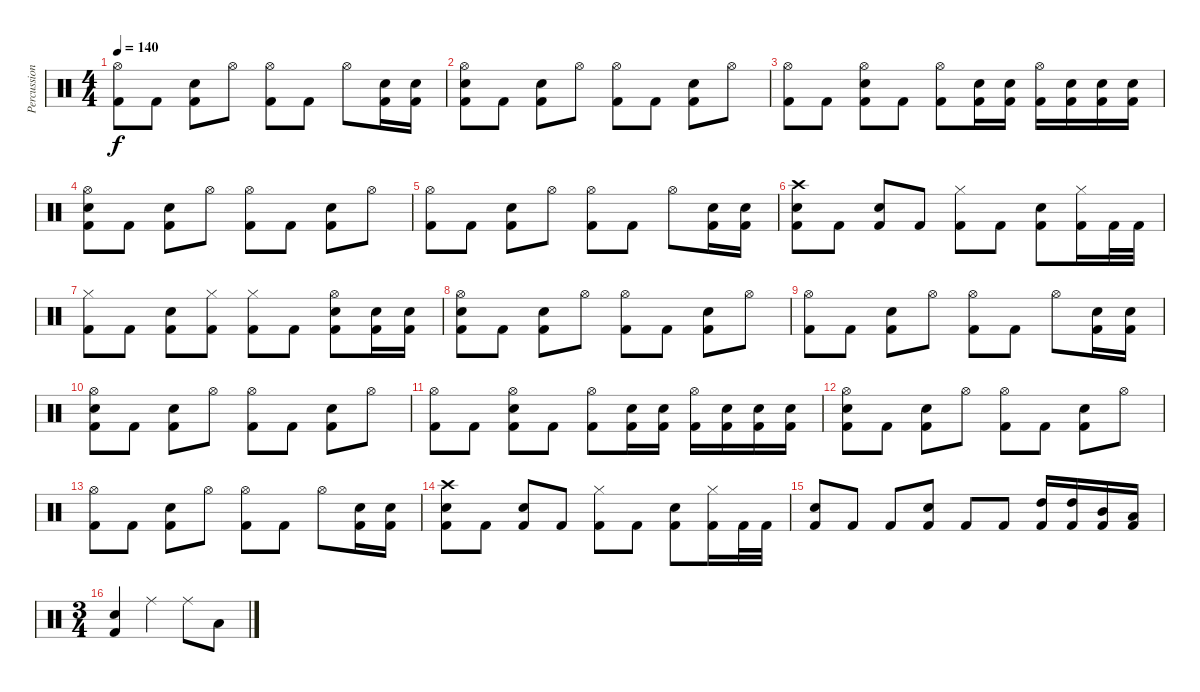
\track ("Percussions" "Percussion") {instrument percussion}
\staff {score}
\articulation defaults
\ts (4 4)
\tempo 140
\clef neutral
\ks c
("Hi-Hat (open)" "Kick (hit) 2").8{dy f} "Kick (hit) 2".8 ("Snare (hit) 2" "Kick (hit) 2").8 "Hi-Hat (open)".8 ("Hi-Hat (open)" "Kick (hit) 2").8 "Kick (hit) 2".8 "Hi-Hat (open)".8 ("Snare (hit) 2" "Kick (hit) 2").16 ("Snare (hit) 2" "Kick (hit) 2").16 |
("Hi-Hat (open)" "Snare (hit) 2" "Kick (hit) 2").8 "Kick (hit) 2".8 ("Snare (hit) 2" "Kick (hit) 2").8 "Hi-Hat (open)".8 ("Hi-Hat (open)" "Kick (hit) 2").8 "Kick (hit) 2".8 ("Snare (hit) 2" "Kick (hit) 2").8 "Hi-Hat (open)".8 |
("Hi-Hat (open)" "Kick (hit) 2").8 "Kick (hit) 2".8 ("Hi-Hat (open)" "Snare (hit) 2" "Kick (hit) 2").8 "Kick (hit) 2".8 ("Hi-Hat (open)" "Kick (hit) 2").8 ("Snare (hit) 2" "Kick (hit) 2").16 ("Snare (hit) 2" "Kick (hit) 2").16 ("Hi-Hat (open)" "Kick (hit) 2").16 ("Snare (hit) 2" "Kick (hit) 2").16 ("Snare (hit) 2" "Kick (hit) 2").16 ("Snare (hit) 2" "Kick (hit) 2").16 |
("Hi-Hat (open)" "Snare (hit) 2" "Kick (hit) 2").8 "Kick (hit) 2".8 ("Snare (hit) 2" "Kick (hit) 2").8 "Hi-Hat (open)".8 ("Hi-Hat (open)" "Kick (hit) 2").8 "Kick (hit) 2".8 ("Snare (hit) 2" "Kick (hit) 2").8 "Hi-Hat (open)".8 |
("Hi-Hat (open)" "Kick (hit) 2").8 "Kick (hit) 2".8 ("Snare (hit) 2" "Kick (hit) 2").8 "Hi-Hat (open)".8 ("Hi-Hat (open)" "Kick (hit) 2").8 "Kick (hit) 2".8 "Hi-Hat (open)".8 ("Snare (hit) 2" "Kick (hit) 2").16 ("Snare (hit) 2" "Kick (hit) 2").16 |
("Crash high (hit)" "Snare (hit) 2" "Kick (hit) 2").8 "Kick (hit) 2".8 ("Snare (hit) 2" "Kick (hit) 2").8 "Kick (hit) 2".8 ("Hi-Hat (closed)" "Kick (hit) 2").8 "Kick (hit) 2".8 ("Snare (hit) 2" "Kick (hit) 2").8 ("Hi-Hat (closed)" "Kick (hit) 2").16 "Kick (hit) 2".32 "Kick (hit) 2".32 |
("Hi-Hat (closed)" "Kick (hit) 2").8 "Kick (hit) 2".8 ("Snare (hit) 2" "Kick (hit) 2").8 ("Hi-Hat (closed)" "Kick (hit) 2").8 ("Hi-Hat (closed)" "Kick (hit) 2").8 "Kick (hit) 2".8 ("Hi-Hat (open)" "Snare (hit) 2" "Kick (hit) 2").8 ("Snare (hit) 2" "Kick (hit) 2").16 ("Snare (hit) 2" "Kick (hit) 2").16 |
("Hi-Hat (open)" "Snare (hit) 2" "Kick (hit) 2").8 "Kick (hit) 2".8 ("Snare (hit) 2" "Kick (hit) 2").8 "Hi-Hat (open)".8 ("Hi-Hat (open)" "Kick (hit) 2").8 "Kick (hit) 2".8 ("Snare (hit) 2" "Kick (hit) 2").8 "Hi-Hat (open)".8 |
("Hi-Hat (open)" "Kick (hit) 2").8 "Kick (hit) 2".8 ("Snare (hit) 2" "Kick (hit) 2").8 "Hi-Hat (open)".8 ("Hi-Hat (open)" "Kick (hit) 2").8 "Kick (hit) 2".8 "Hi-Hat (open)".8 ("Snare (hit) 2" "Kick (hit) 2").16 ("Snare (hit) 2" "Kick (hit) 2").16 |
("Hi-Hat (open)" "Snare (hit) 2" "Kick (hit) 2").8 "Kick (hit) 2".8 ("Snare (hit) 2" "Kick (hit) 2").8 "Hi-Hat (open)".8 ("Hi-Hat (open)" "Kick (hit) 2").8 "Kick (hit) 2".8 ("Snare (hit) 2" "Kick (hit) 2").8 "Hi-Hat (open)".8 |
("Hi-Hat (open)" "Kick (hit) 2").8 "Kick (hit) 2".8 ("Hi-Hat (open)" "Snare (hit) 2" "Kick (hit) 2").8 "Kick (hit) 2".8 ("Hi-Hat (open)" "Kick (hit) 2").8 ("Snare (hit) 2" "Kick (hit) 2").16 ("Snare (hit) 2" "Kick (hit) 2").16 ("Hi-Hat (open)" "Kick (hit) 2").16 ("Snare (hit) 2" "Kick (hit) 2").16 ("Snare (hit) 2" "Kick (hit) 2").16 ("Snare (hit) 2" "Kick (hit) 2").16 |
("Hi-Hat (open)" "Snare (hit) 2" "Kick (hit) 2").8 "Kick (hit) 2".8 ("Snare (hit) 2" "Kick (hit) 2").8 "Hi-Hat (open)".8 ("Hi-Hat (open)" "Kick (hit) 2").8 "Kick (hit) 2".8 ("Snare (hit) 2" "Kick (hit) 2").8 "Hi-Hat (open)".8 |
("Hi-Hat (open)" "Kick (hit) 2").8 "Kick (hit) 2".8 ("Snare (hit) 2" "Kick (hit) 2").8 "Hi-Hat (open)".8 ("Hi-Hat (open)" "Kick (hit) 2").8 "Kick (hit) 2".8 "Hi-Hat (open)".8 ("Snare (hit) 2" "Kick (hit) 2").16 ("Snare (hit) 2" "Kick (hit) 2").16 |
("Crash high (hit)" "Snare (hit) 2" "Kick (hit) 2").8 "Kick (hit) 2".8 ("Snare (hit) 2" "Kick (hit) 2").8 "Kick (hit) 2".8 ("Hi-Hat (closed)" "Kick (hit) 2").8 "Kick (hit) 2".8 ("Snare (hit) 2" "Kick (hit) 2").8 ("Hi-Hat (closed)" "Kick (hit) 2").16 "Kick (hit) 2".32 "Kick (hit) 2".32 |
("Snare (hit) 2" "Kick (hit) 2").8 "Kick (hit) 2".8 "Kick (hit) 2".8 ("Snare (hit) 2" "Kick (hit) 2").8 "Kick (hit) 2".8 "Kick (hit) 2".8 ("High Tom (hit)" "Kick (hit) 2").16 ("High Tom (hit)" "Kick (hit) 2").16 ("Mid Tom (hit)" "Kick (hit) 2").16 ("Low Tom (hit)" "Kick (hit) 2").16 |
\ts (3 4)
("Snare (hit) 2" "Kick (hit) 2").4 "Ride (middle)".4 "Ride (middle)".8 "Low Tom (hit)".8
